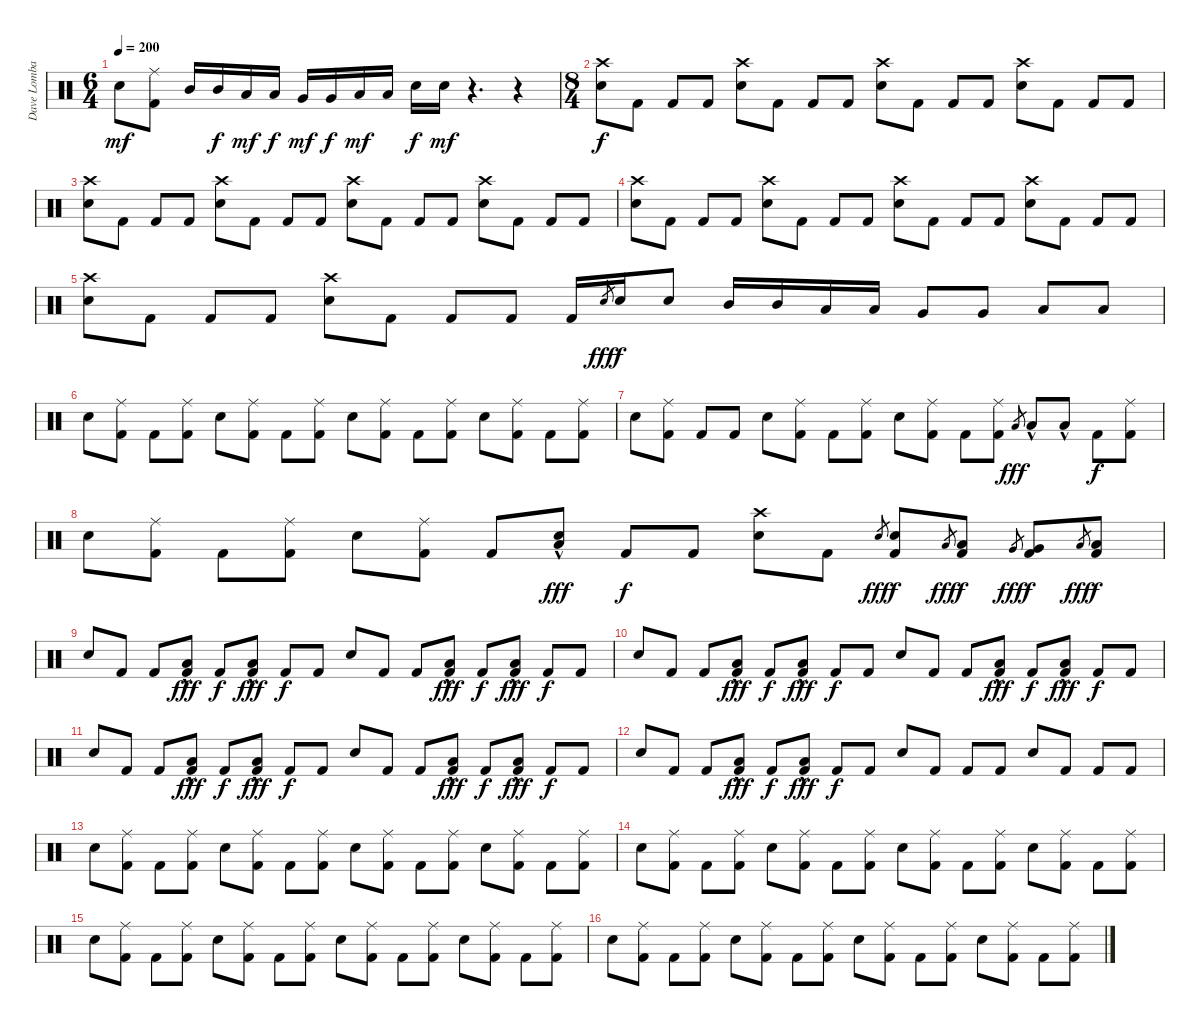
\track ("Dave Lombardo" "Dave Lomba") {instrument percussion}
\staff {score}
\articulation defaults
\ts (6 4)
\tempo 200
\clef neutral
\ks c "Snare (hit) 2".8{dy mf}
("Ride (middle)" "Kick (hit) 2").8 "Mid Tom (hit)".16 "Mid Tom (hit)".16{dy f} "Low Tom (hit)".16{dy mf} "Low Tom (hit)".16{dy f} "Very Low Tom (hit)".16{dy mf} "Very Low Tom (hit)".16{dy f} "Low Floor Tom (hit)".16{dy mf} "Low Floor Tom (hit)".16 "Snare (hit) 2".16{dy f} "Snare (hit) 2".16{dy mf} r.4{d} r.4 |
\ts (8 4)
("Crash high (hit)" "Electric Snare (hit)").8{dy f} "Kick (hit) 2".8 "Kick (hit) 2".8 "Kick (hit) 2".8 ("Crash high (hit)" "Electric Snare (hit)").8 "Kick (hit) 2".8 "Kick (hit) 2".8 "Kick (hit) 2".8 ("Crash high (hit)" "Electric Snare (hit)").8 "Kick (hit) 2".8 "Kick (hit) 2".8 "Kick (hit) 2".8 ("Crash high (hit)" "Electric Snare (hit)").8 "Kick (hit) 2".8 "Kick (hit) 2".8 "Kick (hit) 2".8 |
("Crash high (hit)" "Electric Snare (hit)").8 "Kick (hit) 2".8 "Kick (hit) 2".8 "Kick (hit) 2".8 ("Crash high (hit)" "Electric Snare (hit)").8 "Kick (hit) 2".8 "Kick (hit) 2".8 "Kick (hit) 2".8 ("Crash high (hit)" "Electric Snare (hit)").8 "Kick (hit) 2".8 "Kick (hit) 2".8 "Kick (hit) 2".8 ("Crash high (hit)" "Electric Snare (hit)").8 "Kick (hit) 2".8 "Kick (hit) 2".8 "Kick (hit) 2".8 |
("Crash high (hit)" "Electric Snare (hit)").8 "Kick (hit) 2".8 "Kick (hit) 2".8 "Kick (hit) 2".8 ("Crash high (hit)" "Electric Snare (hit)").8 "Kick (hit) 2".8 "Kick (hit) 2".8 "Kick (hit) 2".8 ("Crash high (hit)" "Electric Snare (hit)").8 "Kick (hit) 2".8 "Kick (hit) 2".8 "Kick (hit) 2".8 ("Crash high (hit)" "Electric Snare (hit)").8 "Kick (hit) 2".8 "Kick (hit) 2".8 "Kick (hit) 2".8 |
("Crash high (hit)" "Electric Snare (hit)").8 "Kick (hit) 2".8 "Kick (hit) 2".8 "Kick (hit) 2".8 ("Crash high (hit)" "Electric Snare (hit)").8 "Kick (hit) 2".8 "Kick (hit) 2".8 "Kick (hit) 2".8 "Kick (hit) 2".16 "Snare (hit) 2".8{gr dy fff} "Snare (hit) 2".16{dy f} "Snare (hit) 2".8 "Mid Tom (hit)".16 "Mid Tom (hit)".16 "Low Tom (hit)".16 "Low Tom (hit)".16 "Very Low Tom (hit)".8 "Very Low Tom (hit)".8 "Low Floor Tom (hit)".8 "Low Floor Tom (hit)".8 |
"Electric Snare (hit)".8 ("Ride (middle)" "Kick (hit) 2").8 "Kick (hit) 2".8 ("Ride (middle)" "Kick (hit) 2").8 "Electric Snare (hit)".8 ("Ride (middle)" "Kick (hit) 2").8 "Kick (hit) 2".8 ("Ride (middle)" "Kick (hit) 2").8 "Electric Snare (hit)".8 ("Ride (middle)" "Kick (hit) 2").8 "Kick (hit) 2".8 ("Ride (middle)" "Kick (hit) 2").8 "Electric Snare (hit)".8 ("Ride (middle)" "Kick (hit) 2").8 "Kick (hit) 2".8 ("Ride (middle)" "Kick (hit) 2").8 |
"Electric Snare (hit)".8 ("Ride (middle)" "Kick (hit) 2").8 "Kick (hit) 2".8 "Kick (hit) 2".8 "Electric Snare (hit)".8 ("Ride (middle)" "Kick (hit) 2").8 "Kick (hit) 2".8 ("Ride (middle)" "Kick (hit) 2").8 "Electric Snare (hit)".8 ("Ride (middle)" "Kick (hit) 2").8 "Kick (hit) 2".8 ("Ride (middle)" "Kick (hit) 2").8 "Low Tom (hit)".8{gr dy fff} "Low Tom (hit)"{hac}.8 "Low Floor Tom (hit)"{hac}.8 "Kick (hit) 2".8{dy f} ("Ride (middle)" "Kick (hit) 2").8 |
"Electric Snare (hit)".8 ("Ride (middle)" "Kick (hit) 2").8 "Kick (hit) 2".8 ("Ride (middle)" "Kick (hit) 2").8 "Electric Snare (hit)".8 ("Ride (middle)" "Kick (hit) 2").8 "Kick (hit) 2".8 ("Low Floor Tom (hit)"{hac} "Snare (hit) 2").8{dy fff} "Kick (hit) 2".8{dy f} "Kick (hit) 2".8 ("Crash high (hit)" "Electric Snare (hit)").8 "Kick (hit) 2".8 "Snare (hit) 2".8{gr dy fff} ("Snare (hit) 2" "Kick (hit) 2").8{dy f} "Low Tom (hit)".8{gr dy fff} ("Low Tom (hit)" "Kick (hit) 2").8{dy f} "Very Low Tom (hit)".8{gr dy fff} ("Very Low Tom (hit)" "Kick (hit) 2").8{dy f} "Low Floor Tom (hit)".8{gr dy fff} ("Low Floor Tom (hit)" "Kick (hit) 2").8{dy f} |
"Electric Snare (hit)".8 "Kick (hit) 2".8 "Kick (hit) 2".8 ("Low Floor Tom (hit)"{hac} "Kick (hit) 2").8{dy fff} "Kick (hit) 2".8{dy f} ("Low Floor Tom (hit)"{hac} "Kick (hit) 2").8{dy fff} "Kick (hit) 2".8{dy f} "Kick (hit) 2".8 "Electric Snare (hit)".8 "Kick (hit) 2".8 "Kick (hit) 2".8 ("Low Floor Tom (hit)"{hac} "Kick (hit) 2").8{dy fff} "Kick (hit) 2".8{dy f} ("Low Floor Tom (hit)"{hac} "Kick (hit) 2").8{dy fff} "Kick (hit) 2".8{dy f} "Kick (hit) 2".8 |
"Electric Snare (hit)".8 "Kick (hit) 2".8 "Kick (hit) 2".8 ("Low Floor Tom (hit)"{hac} "Kick (hit) 2").8{dy fff} "Kick (hit) 2".8{dy f} ("Low Floor Tom (hit)"{hac} "Kick (hit) 2").8{dy fff} "Kick (hit) 2".8{dy f} "Kick (hit) 2".8 "Electric Snare (hit)".8 "Kick (hit) 2".8 "Kick (hit) 2".8 ("Low Floor Tom (hit)"{hac} "Kick (hit) 2").8{dy fff} "Kick (hit) 2".8{dy f} ("Low Floor Tom (hit)"{hac} "Kick (hit) 2").8{dy fff} "Kick (hit) 2".8{dy f} "Kick (hit) 2".8 |
"Electric Snare (hit)".8 "Kick (hit) 2".8 "Kick (hit) 2".8 ("Low Floor Tom (hit)"{hac} "Kick (hit) 2").8{dy fff} "Kick (hit) 2".8{dy f} ("Low Floor Tom (hit)"{hac} "Kick (hit) 2").8{dy fff} "Kick (hit) 2".8{dy f} "Kick (hit) 2".8 "Electric Snare (hit)".8 "Kick (hit) 2".8 "Kick (hit) 2".8 ("Low Floor Tom (hit)"{hac} "Kick (hit) 2").8{dy fff} "Kick (hit) 2".8{dy f} ("Low Floor Tom (hit)"{hac} "Kick (hit) 2").8{dy fff} "Kick (hit) 2".8{dy f} "Kick (hit) 2".8 |
"Electric Snare (hit)".8 "Kick (hit) 2".8 "Kick (hit) 2".8 ("Low Floor Tom (hit)"{hac} "Kick (hit) 2").8{dy fff} "Kick (hit) 2".8{dy f} ("Low Floor Tom (hit)"{hac} "Kick (hit) 2").8{dy fff} "Kick (hit) 2".8{dy f} "Kick (hit) 2".8 "Electric Snare (hit)".8 "Kick (hit) 2".8 "Kick (hit) 2".8 "Kick (hit) 2".8 "Electric Snare (hit)".8 "Kick (hit) 2".8 "Kick (hit) 2".8 "Kick (hit) 2".8 |
"Electric Snare (hit)".8 ("Ride (middle)" "Kick (hit) 2").8 "Kick (hit) 2".8 ("Ride (middle)" "Kick (hit) 2").8 "Electric Snare (hit)".8 ("Ride (middle)" "Kick (hit) 2").8 "Kick (hit) 2".8 ("Ride (middle)" "Kick (hit) 2").8 "Electric Snare (hit)".8 ("Ride (middle)" "Kick (hit) 2").8 "Kick (hit) 2".8 ("Ride (middle)" "Kick (hit) 2").8 "Electric Snare (hit)".8 ("Ride (middle)" "Kick (hit) 2").8 "Kick (hit) 2".8 ("Ride (middle)" "Kick (hit) 2").8 |
"Electric Snare (hit)".8 ("Ride (middle)" "Kick (hit) 2").8 "Kick (hit) 2".8 ("Ride (middle)" "Kick (hit) 2").8 "Electric Snare (hit)".8 ("Ride (middle)" "Kick (hit) 2").8 "Kick (hit) 2".8 ("Ride (middle)" "Kick (hit) 2").8 "Electric Snare (hit)".8 ("Ride (middle)" "Kick (hit) 2").8 "Kick (hit) 2".8 ("Ride (middle)" "Kick (hit) 2").8 "Electric Snare (hit)".8 ("Ride (middle)" "Kick (hit) 2").8 "Kick (hit) 2".8 ("Ride (middle)" "Kick (hit) 2").8 |
"Electric Snare (hit)".8 ("Ride (middle)" "Kick (hit) 2").8 "Kick (hit) 2".8 ("Ride (middle)" "Kick (hit) 2").8 "Electric Snare (hit)".8 ("Ride (middle)" "Kick (hit) 2").8 "Kick (hit) 2".8 ("Ride (middle)" "Kick (hit) 2").8 "Electric Snare (hit)".8 ("Ride (middle)" "Kick (hit) 2").8 "Kick (hit) 2".8 ("Ride (middle)" "Kick (hit) 2").8 "Electric Snare (hit)".8 ("Ride (middle)" "Kick (hit) 2").8 "Kick (hit) 2".8 ("Ride (middle)" "Kick (hit) 2").8 |
"Electric Snare (hit)".8 ("Ride (middle)" "Kick (hit) 2").8 "Kick (hit) 2".8 ("Ride (middle)" "Kick (hit) 2").8 "Electric Snare (hit)".8 ("Ride (middle)" "Kick (hit) 2").8 "Kick (hit) 2".8 ("Ride (middle)" "Kick (hit) 2").8 "Electric Snare (hit)".8 ("Ride (middle)" "Kick (hit) 2").8 "Kick (hit) 2".8 ("Ride (middle)" "Kick (hit) 2").8 "Electric Snare (hit)".8 ("Ride (middle)" "Kick (hit) 2").8 "Kick (hit) 2".8 ("Ride (middle)" "Kick (hit) 2").8
